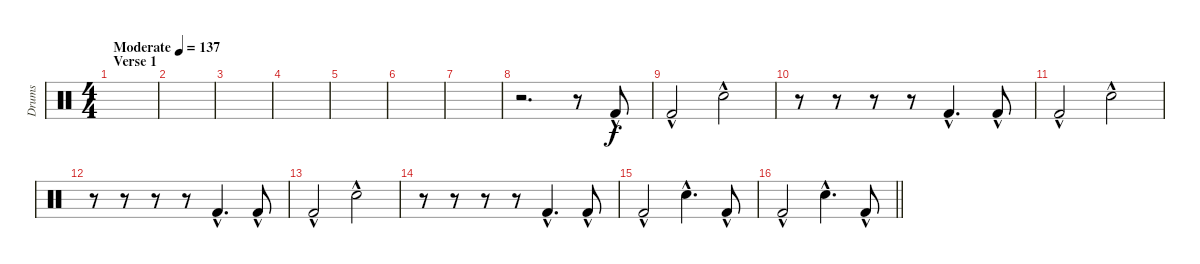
\track ("Drums" "Drums") {instrument percussion}
\staff {score}
\articulation defaults
\ts (4 4)
\section ("" "Verse 1")
\tempo (137 "Moderate")
\clef neutral
\ks c
|
|
|
|
|
|
|
r.2{d} r.8 "Kick (hit) 2"{hac}.8 |
"Kick (hit) 2"{hac}.2 "Snare (hit) 2"{hac}.2 |
r.8 r.8 r.8 r.8 "Kick (hit) 2"{hac}.4{d} "Kick (hit) 2"{hac}.8 |
"Kick (hit) 2"{hac}.2 "Snare (hit) 2"{hac}.2 |
r.8 r.8 r.8 r.8 "Kick (hit) 2"{hac}.4{d} "Kick (hit) 2"{hac}.8 |
"Kick (hit) 2"{hac}.2 "Snare (hit) 2"{hac}.2 |
r.8 r.8 r.8 r.8 "Kick (hit) 2"{hac}.4{d} "Kick (hit) 2"{hac}.8 |
"Kick (hit) 2"{hac}.2 "Snare (hit) 2"{hac}.4{d} "Kick (hit) 2"{hac}.8 |
\barLineRight lightlight "Kick (hit) 2"{hac}.2 "Snare (hit) 2"{hac}.4{d} "Kick (hit) 2"{hac}.8
